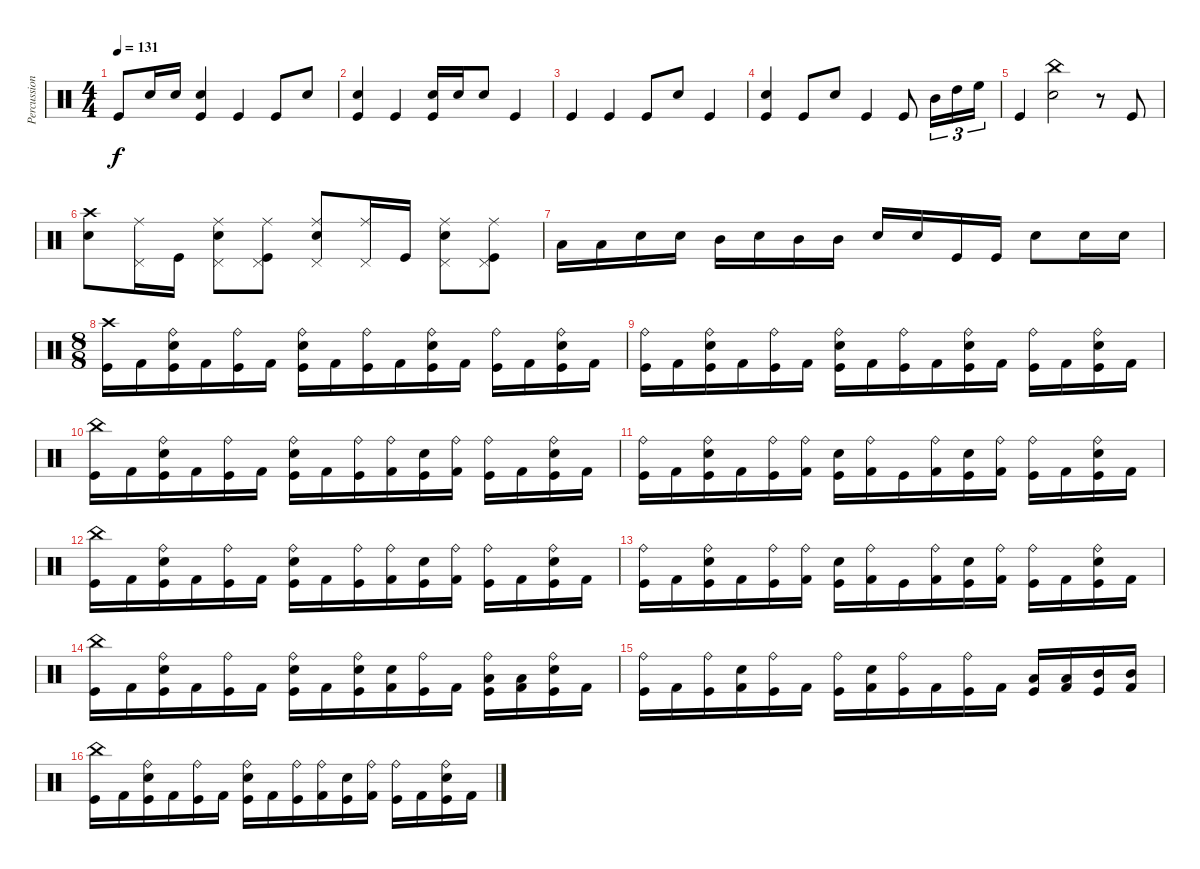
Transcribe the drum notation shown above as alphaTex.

\track ("Percussion" "Percussion") {instrument percussion}
\staff {score}
\articulation defaults
\ts (4 4)
\tempo 131
\clef neutral
\ks c "Kick (hit)".8{dy f} "Snare (hit) 2".16 "Snare (hit) 2".16
("Snare (hit) 2" "Kick (hit)").4 "Kick (hit)".4 "Kick (hit)".8 "Snare (hit) 2".8 |
("Snare (hit) 2" "Kick (hit)").4 "Kick (hit)".4 ("Snare (hit) 2" "Kick (hit)").16 "Snare (hit) 2".16 "Snare (hit) 2".8 "Kick (hit)".4 |
"Kick (hit)".4 "Kick (hit)".4 "Kick (hit)".8 "Snare (hit) 2".8 "Kick (hit)".4 |
("Snare (hit) 2" "Kick (hit)").4 "Kick (hit)".8 "Snare (hit) 2".8 "Kick (hit)".4 "Kick (hit)".8 "Mid Tom (hit)".16{tu (3 2)} "High Tom (hit)".16{tu (3 2)} "High Floor Tom (hit)".16{tu (3 2)} |
"Kick (hit)".4 ("Snare (hit) 2" "China (hit)").2 r.8 "Kick (hit)".8 |
("Snare (hit) 2" "Crash high (hit)").8 ("Pedal Hi-Hat (hit)" "Ride (middle)").16 "Kick (hit)".16 ("Pedal Hi-Hat (hit)" "Ride (middle)" "Snare (hit) 2").8 ("Pedal Hi-Hat (hit)" "Ride (middle)" "Kick (hit)").8 ("Pedal Hi-Hat (hit)" "Ride (middle)" "Snare (hit) 2").8 ("Pedal Hi-Hat (hit)" "Ride (middle)").16 "Kick (hit)".16 ("Pedal Hi-Hat (hit)" "Ride (middle)" "Snare (hit) 2").8 ("Pedal Hi-Hat (hit)" "Ride (middle)" "Kick (hit)").8 |
"Low Tom (hit)".16 "Low Tom (hit)".16 "Electric Snare (hit)".16 "Electric Snare (hit)".16 "Mid Tom (hit)".16 "Electric Snare (hit)".16 "Mid Tom (hit)".16 "Mid Tom (hit)".16 "Electric Snare (hit)".16 "Electric Snare (hit)".16 "Kick (hit)".16 "Kick (hit)".16 "Electric Snare (hit)".8 "Snare (hit) 2".16 "Snare (hit) 2".16 |
\ts (8 8)
("Crash high (hit)" "Kick (hit)").16 "Kick (hit) 2".16 ("Ride (bell)" "Electric Snare (hit)" "Kick (hit)").16 "Kick (hit) 2".16 ("Ride (bell)" "Kick (hit)").16 "Kick (hit) 2".16 ("Ride (bell)" "Electric Snare (hit)" "Kick (hit)").16 "Kick (hit) 2".16 ("Ride (bell)" "Kick (hit)").16 "Kick (hit) 2".16 ("Ride (bell)" "Electric Snare (hit)" "Kick (hit)").16 "Kick (hit) 2".16 ("Ride (bell)" "Kick (hit)").16 "Kick (hit) 2".16 ("Ride (bell)" "Electric Snare (hit)" "Kick (hit)").16 "Kick (hit) 2".16 |
("Ride (bell)" "Kick (hit)").16 "Kick (hit) 2".16 ("Ride (bell)" "Electric Snare (hit)" "Kick (hit)").16 "Kick (hit) 2".16 ("Ride (bell)" "Kick (hit)").16 "Kick (hit) 2".16 ("Ride (bell)" "Electric Snare (hit)" "Kick (hit)").16 "Kick (hit) 2".16 ("Ride (bell)" "Kick (hit)").16 "Kick (hit) 2".16 ("Ride (bell)" "Electric Snare (hit)" "Kick (hit)").16 "Kick (hit) 2".16 ("Ride (bell)" "Kick (hit)").16 "Kick (hit) 2".16 ("Ride (bell)" "Electric Snare (hit)" "Kick (hit)").16 "Kick (hit) 2".16 |
("China (hit)" "Kick (hit)").16 "Kick (hit) 2".16 ("Ride (bell)" "Electric Snare (hit)" "Kick (hit)").16 "Kick (hit) 2".16 ("Ride (bell)" "Kick (hit)").16 "Kick (hit) 2".16 ("Ride (bell)" "Electric Snare (hit)" "Kick (hit)").16 "Kick (hit) 2".16 ("Ride (bell)" "Kick (hit)").16 ("Ride (bell)" "Kick (hit) 2").16 ("Electric Snare (hit)" "Kick (hit)").16 ("Ride (bell)" "Kick (hit) 2").16 ("Ride (bell)" "Kick (hit)").16 "Kick (hit) 2".16 ("Ride (bell)" "Electric Snare (hit)" "Kick (hit)").16 "Kick (hit) 2".16 |
("Ride (bell)" "Kick (hit)").16 "Kick (hit) 2".16 ("Ride (bell)" "Electric Snare (hit)" "Kick (hit)").16 "Kick (hit) 2".16 ("Ride (bell)" "Kick (hit)").16 ("Ride (bell)" "Kick (hit) 2").16 ("Electric Snare (hit)" "Kick (hit)").16 ("Ride (bell)" "Kick (hit) 2").16 "Kick (hit)".16 ("Ride (bell)" "Kick (hit) 2").16 ("Electric Snare (hit)" "Kick (hit)").16 ("Ride (bell)" "Kick (hit) 2").16 ("Ride (bell)" "Kick (hit)").16 "Kick (hit) 2".16 ("Ride (bell)" "Electric Snare (hit)" "Kick (hit)").16 "Kick (hit) 2".16 |
("China (hit)" "Kick (hit)").16 "Kick (hit) 2".16 ("Ride (bell)" "Electric Snare (hit)" "Kick (hit)").16 "Kick (hit) 2".16 ("Ride (bell)" "Kick (hit)").16 "Kick (hit) 2".16 ("Ride (bell)" "Electric Snare (hit)" "Kick (hit)").16 "Kick (hit) 2".16 ("Ride (bell)" "Kick (hit)").16 ("Ride (bell)" "Kick (hit) 2").16 ("Electric Snare (hit)" "Kick (hit)").16 ("Ride (bell)" "Kick (hit) 2").16 ("Ride (bell)" "Kick (hit)").16 "Kick (hit) 2".16 ("Ride (bell)" "Electric Snare (hit)" "Kick (hit)").16 "Kick (hit) 2".16 |
("Ride (bell)" "Kick (hit)").16 "Kick (hit) 2".16 ("Ride (bell)" "Electric Snare (hit)" "Kick (hit)").16 "Kick (hit) 2".16 ("Ride (bell)" "Kick (hit)").16 ("Ride (bell)" "Kick (hit) 2").16 ("Electric Snare (hit)" "Kick (hit)").16 ("Ride (bell)" "Kick (hit) 2").16 "Kick (hit)".16 ("Ride (bell)" "Kick (hit) 2").16 ("Electric Snare (hit)" "Kick (hit)").16 ("Ride (bell)" "Kick (hit) 2").16 ("Ride (bell)" "Kick (hit)").16 "Kick (hit) 2".16 ("Ride (bell)" "Electric Snare (hit)" "Kick (hit)").16 "Kick (hit) 2".16 |
("China (hit)" "Kick (hit)").16 "Kick (hit) 2".16 ("Ride (bell)" "Electric Snare (hit)" "Kick (hit)").16 "Kick (hit) 2".16 ("Ride (bell)" "Kick (hit)").16 "Kick (hit) 2".16 ("Ride (bell)" "Electric Snare (hit)" "Kick (hit)").16 "Kick (hit) 2".16 ("Ride (bell)" "Electric Snare (hit)" "Kick (hit)").16 ("Electric Snare (hit)" "Kick (hit) 2").16 ("Ride (bell)" "Kick (hit)").16 "Kick (hit) 2".16 ("Ride (bell)" "Low Tom (hit)" "Kick (hit)").16 ("Low Tom (hit)" "Kick (hit) 2").16 ("Ride (bell)" "Electric Snare (hit)" "Kick (hit)").16 "Kick (hit) 2".16 |
("Ride (bell)" "Kick (hit)").16 "Kick (hit) 2".16 ("Ride (bell)" "Kick (hit)").16 ("Electric Snare (hit)" "Kick (hit) 2").16 ("Ride (bell)" "Kick (hit)").16 "Kick (hit) 2".16 ("Ride (bell)" "Kick (hit)").16 ("Electric Snare (hit)" "Kick (hit) 2").16 ("Ride (bell)" "Kick (hit)").16 "Kick (hit) 2".16 ("Ride (bell)" "Kick (hit)").16 "Kick (hit) 2".16 ("Low Tom (hit)" "Kick (hit)").16 ("Low Tom (hit)" "Kick (hit) 2").16 ("Mid Tom (hit)" "Kick (hit)").16 ("Mid Tom (hit)" "Kick (hit) 2").16 |
("China (hit)" "Kick (hit)").16 "Kick (hit) 2".16 ("Ride (bell)" "Electric Snare (hit)" "Kick (hit)").16 "Kick (hit) 2".16 ("Ride (bell)" "Kick (hit)").16 "Kick (hit) 2".16 ("Ride (bell)" "Electric Snare (hit)" "Kick (hit)").16 "Kick (hit) 2".16 ("Ride (bell)" "Kick (hit)").16 ("Ride (bell)" "Kick (hit) 2").16 ("Electric Snare (hit)" "Kick (hit)").16 ("Ride (bell)" "Kick (hit) 2").16 ("Ride (bell)" "Kick (hit)").16 "Kick (hit) 2".16 ("Ride (bell)" "Electric Snare (hit)" "Kick (hit)").16 "Kick (hit) 2".16
